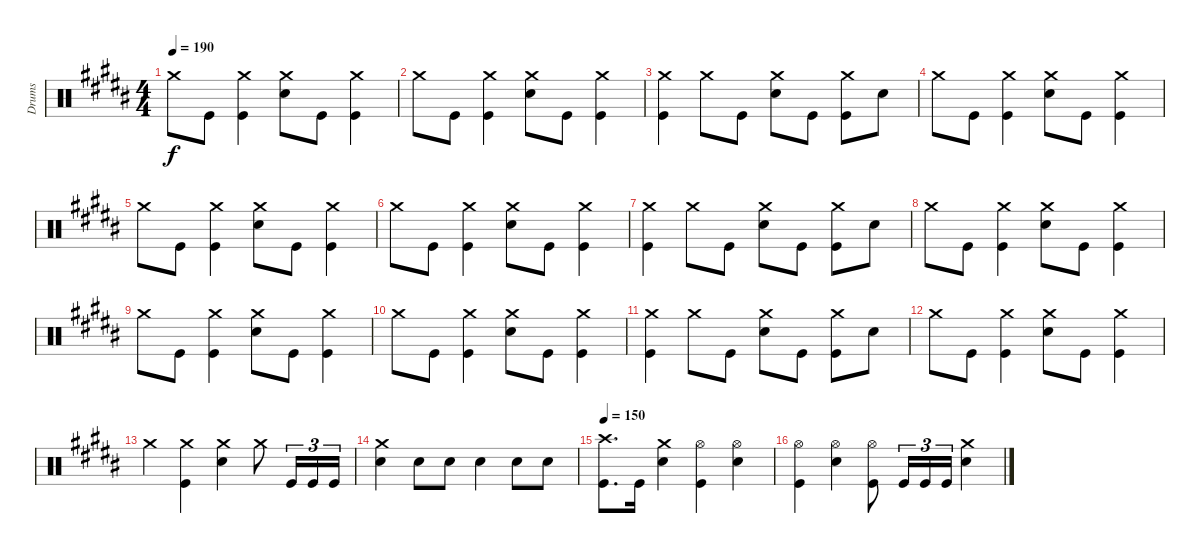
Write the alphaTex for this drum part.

\track ("Drums" "Drums") {instrument percussion}
\staff {score}
\articulation defaults
\ts (4 4)
\tempo 190
\clef neutral
\ks g#minor "Crash medium (hit)".8{dy f} "Kick (hit)".8
("Crash medium (hit)" "Kick (hit)").4 ("Snare (hit) 2" "Crash medium (hit)").8 "Kick (hit)".8 ("Kick (hit)" "Crash medium (hit)").4 |
"Crash medium (hit)".8 "Kick (hit)".8 ("Crash medium (hit)" "Kick (hit)").4 ("Snare (hit) 2" "Crash medium (hit)").8 "Kick (hit)".8 ("Kick (hit)" "Crash medium (hit)").4 |
\ks b
("Kick (hit)" "Crash medium (hit)").4 "Crash medium (hit)".8 "Kick (hit)".8 ("Snare (hit) 2" "Crash medium (hit)").8 "Kick (hit)".8 ("Kick (hit)" "Crash medium (hit)").8 "Snare (hit) 2".8 |
\ks g#minor "Crash medium (hit)".8 "Kick (hit)".8
("Crash medium (hit)" "Kick (hit)").4 ("Snare (hit) 2" "Crash medium (hit)").8 "Kick (hit)".8 ("Kick (hit)" "Crash medium (hit)").4 |
"Crash medium (hit)".8 "Kick (hit)".8 ("Crash medium (hit)" "Kick (hit)").4 ("Snare (hit) 2" "Crash medium (hit)").8 "Kick (hit)".8 ("Kick (hit)" "Crash medium (hit)").4 |
"Crash medium (hit)".8 "Kick (hit)".8 ("Crash medium (hit)" "Kick (hit)").4 ("Snare (hit) 2" "Crash medium (hit)").8 "Kick (hit)".8 ("Kick (hit)" "Crash medium (hit)").4 |
\ks b
("Kick (hit)" "Crash medium (hit)").4 "Crash medium (hit)".8 "Kick (hit)".8 ("Snare (hit) 2" "Crash medium (hit)").8 "Kick (hit)".8 ("Kick (hit)" "Crash medium (hit)").8 "Snare (hit) 2".8 |
\ks g#minor "Crash medium (hit)".8 "Kick (hit)".8
("Crash medium (hit)" "Kick (hit)").4 ("Snare (hit) 2" "Crash medium (hit)").8 "Kick (hit)".8 ("Kick (hit)" "Crash medium (hit)").4 |
"Crash medium (hit)".8 "Kick (hit)".8 ("Crash medium (hit)" "Kick (hit)").4 ("Snare (hit) 2" "Crash medium (hit)").8 "Kick (hit)".8 ("Kick (hit)" "Crash medium (hit)").4 |
"Crash medium (hit)".8 "Kick (hit)".8 ("Crash medium (hit)" "Kick (hit)").4 ("Snare (hit) 2" "Crash medium (hit)").8 "Kick (hit)".8 ("Kick (hit)" "Crash medium (hit)").4 |
\ks b
("Kick (hit)" "Crash medium (hit)").4 "Crash medium (hit)".8 "Kick (hit)".8 ("Snare (hit) 2" "Crash medium (hit)").8 "Kick (hit)".8 ("Kick (hit)" "Crash medium (hit)").8 "Snare (hit) 2".8 |
\ks g#minor "Crash medium (hit)".8 "Kick (hit)".8
("Crash medium (hit)" "Kick (hit)").4 ("Snare (hit) 2" "Crash medium (hit)").8 "Kick (hit)".8 ("Kick (hit)" "Crash medium (hit)").4 |
"Crash medium (hit)".4 ("Kick (hit)" "Crash medium (hit)").4 ("Snare (hit) 2" "Crash medium (hit)").4 "Crash medium (hit)".8 "Kick (hit)".16{tu (3 2)} "Kick (hit)".16{tu (3 2)} "Kick (hit)".16{tu (3 2)} |
("Snare (hit) 2" "Crash medium (hit)").4 "Snare (hit) 2".8 "Snare (hit) 2".8 "Snare (hit) 2".4 "Snare (hit) 2".8 "Snare (hit) 2".8 |
\tempo 150
\ks b
("Crash high (hit)" "Kick (hit)").8{d} "Kick (hit)".16 ("Crash medium (hit)" "Snare (hit) 2").4 ("Kick (hit)" "Hi-Hat (open)").4 ("Snare (hit) 2" "Hi-Hat (open)").4 |
\ks g#minor
("Kick (hit)" "Hi-Hat (open)").4 ("Snare (hit) 2" "Hi-Hat (open)").4 ("Kick (hit)" "Hi-Hat (open)").8 "Kick (hit)".16{tu (3 2)} "Kick (hit)".16{tu (3 2)} "Kick (hit)".16{tu (3 2)} ("Snare (hit) 2" "Crash medium (hit)").4
